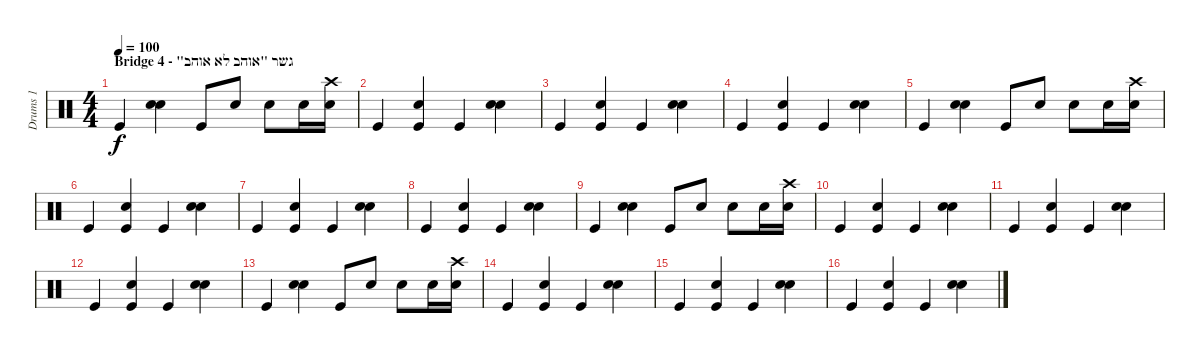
\track ("Drums 1" "Drums 1") {instrument percussion}
\staff {score}
\articulation defaults
\ts (4 4)
\section ("" "Bridge 4 - \"גשר \"אוהב לא אוהב")
\tempo 100
\clef neutral
\ks c "Kick (hit)".4{dy f}
("Electric Snare (hit)" "Snare (hit) 2").4 "Kick (hit)".8 "Electric Snare (hit)".8 "Electric Snare (hit)".8 "Electric Snare (hit)".16 ("Electric Snare (hit)" "Crash high (hit)").16 |
"Kick (hit)".4 ("Electric Snare (hit)" "Kick (hit)").4 "Kick (hit)".4 ("Electric Snare (hit)" "Snare (hit) 2").4 |
"Kick (hit)".4 ("Electric Snare (hit)" "Kick (hit)").4 "Kick (hit)".4 ("Electric Snare (hit)" "Snare (hit) 2").4 |
"Kick (hit)".4 ("Electric Snare (hit)" "Kick (hit)").4 "Kick (hit)".4 ("Electric Snare (hit)" "Snare (hit) 2").4 |
"Kick (hit)".4 ("Electric Snare (hit)" "Snare (hit) 2").4 "Kick (hit)".8 "Electric Snare (hit)".8 "Electric Snare (hit)".8 "Electric Snare (hit)".16 ("Electric Snare (hit)" "Crash high (hit)").16 |
"Kick (hit)".4 ("Electric Snare (hit)" "Kick (hit)").4 "Kick (hit)".4 ("Electric Snare (hit)" "Snare (hit) 2").4 |
"Kick (hit)".4 ("Electric Snare (hit)" "Kick (hit)").4 "Kick (hit)".4 ("Electric Snare (hit)" "Snare (hit) 2").4 |
"Kick (hit)".4 ("Electric Snare (hit)" "Kick (hit)").4 "Kick (hit)".4 ("Electric Snare (hit)" "Snare (hit) 2").4 |
"Kick (hit)".4 ("Electric Snare (hit)" "Snare (hit) 2").4 "Kick (hit)".8 "Electric Snare (hit)".8 "Electric Snare (hit)".8 "Electric Snare (hit)".16 ("Electric Snare (hit)" "Crash high (hit)").16 |
"Kick (hit)".4 ("Electric Snare (hit)" "Kick (hit)").4 "Kick (hit)".4 ("Electric Snare (hit)" "Snare (hit) 2").4 |
"Kick (hit)".4 ("Electric Snare (hit)" "Kick (hit)").4 "Kick (hit)".4 ("Electric Snare (hit)" "Snare (hit) 2").4 |
"Kick (hit)".4 ("Electric Snare (hit)" "Kick (hit)").4 "Kick (hit)".4 ("Electric Snare (hit)" "Snare (hit) 2").4 |
"Kick (hit)".4 ("Electric Snare (hit)" "Snare (hit) 2").4 "Kick (hit)".8 "Electric Snare (hit)".8 "Electric Snare (hit)".8 "Electric Snare (hit)".16 ("Electric Snare (hit)" "Crash high (hit)").16 |
"Kick (hit)".4 ("Electric Snare (hit)" "Kick (hit)").4 "Kick (hit)".4 ("Electric Snare (hit)" "Snare (hit) 2").4 |
"Kick (hit)".4 ("Electric Snare (hit)" "Kick (hit)").4 "Kick (hit)".4 ("Electric Snare (hit)" "Snare (hit) 2").4 |
"Kick (hit)".4 ("Electric Snare (hit)" "Kick (hit)").4 "Kick (hit)".4 ("Electric Snare (hit)" "Snare (hit) 2").4
